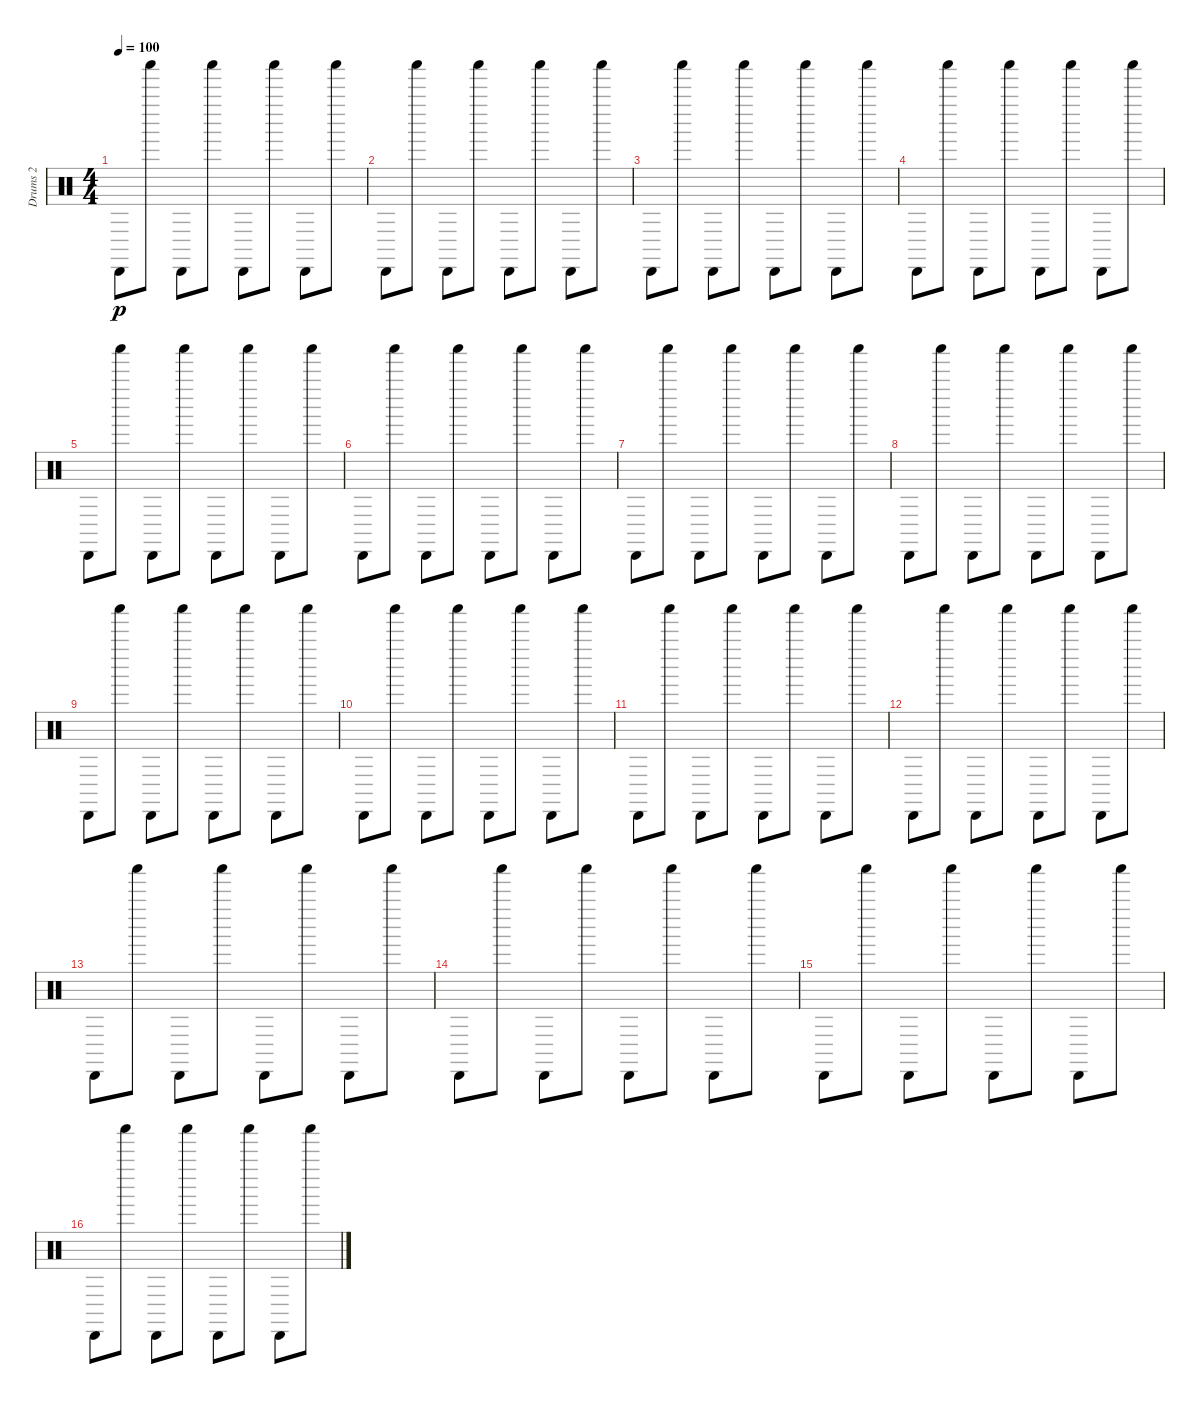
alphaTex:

\track ("Drums 2" "Drums 2") {instrument percussion}
\staff {score}
\articulation defaults
\ts (4 4)
\section ("" "")
\tempo 100
\clef neutral
\ks c "Cabasa (hit)".8{dy p} "Shaker (hit)".8 "Cabasa (hit)".8 "Shaker (hit)".8 "Cabasa (hit)".8 "Shaker (hit)".8 "Cabasa (hit)".8 "Shaker (hit)".8
|
"Cabasa (hit)".8 "Shaker (hit)".8 "Cabasa (hit)".8 "Shaker (hit)".8 "Cabasa (hit)".8 "Shaker (hit)".8 "Cabasa (hit)".8 "Shaker (hit)".8 |
"Cabasa (hit)".8 "Shaker (hit)".8 "Cabasa (hit)".8 "Shaker (hit)".8 "Cabasa (hit)".8 "Shaker (hit)".8 "Cabasa (hit)".8 "Shaker (hit)".8 |
"Cabasa (hit)".8 "Shaker (hit)".8 "Cabasa (hit)".8 "Shaker (hit)".8 "Cabasa (hit)".8 "Shaker (hit)".8 "Cabasa (hit)".8 "Shaker (hit)".8 |
"Cabasa (hit)".8 "Shaker (hit)".8 "Cabasa (hit)".8 "Shaker (hit)".8 "Cabasa (hit)".8 "Shaker (hit)".8 "Cabasa (hit)".8 "Shaker (hit)".8 |
"Cabasa (hit)".8 "Shaker (hit)".8 "Cabasa (hit)".8 "Shaker (hit)".8 "Cabasa (hit)".8 "Shaker (hit)".8 "Cabasa (hit)".8 "Shaker (hit)".8 |
"Cabasa (hit)".8 "Shaker (hit)".8 "Cabasa (hit)".8 "Shaker (hit)".8 "Cabasa (hit)".8 "Shaker (hit)".8 "Cabasa (hit)".8 "Shaker (hit)".8 |
"Cabasa (hit)".8 "Shaker (hit)".8 "Cabasa (hit)".8 "Shaker (hit)".8 "Cabasa (hit)".8 "Shaker (hit)".8 "Cabasa (hit)".8 "Shaker (hit)".8 |
"Cabasa (hit)".8 "Shaker (hit)".8 "Cabasa (hit)".8 "Shaker (hit)".8 "Cabasa (hit)".8 "Shaker (hit)".8 "Cabasa (hit)".8 "Shaker (hit)".8 |
"Cabasa (hit)".8 "Shaker (hit)".8 "Cabasa (hit)".8 "Shaker (hit)".8 "Cabasa (hit)".8 "Shaker (hit)".8 "Cabasa (hit)".8 "Shaker (hit)".8 |
"Cabasa (hit)".8 "Shaker (hit)".8 "Cabasa (hit)".8 "Shaker (hit)".8 "Cabasa (hit)".8 "Shaker (hit)".8 "Cabasa (hit)".8 "Shaker (hit)".8 |
"Cabasa (hit)".8 "Shaker (hit)".8 "Cabasa (hit)".8 "Shaker (hit)".8 "Cabasa (hit)".8 "Shaker (hit)".8 "Cabasa (hit)".8 "Shaker (hit)".8 |
"Cabasa (hit)".8 "Shaker (hit)".8 "Cabasa (hit)".8 "Shaker (hit)".8 "Cabasa (hit)".8 "Shaker (hit)".8 "Cabasa (hit)".8 "Shaker (hit)".8 |
"Cabasa (hit)".8 "Shaker (hit)".8 "Cabasa (hit)".8 "Shaker (hit)".8 "Cabasa (hit)".8 "Shaker (hit)".8 "Cabasa (hit)".8 "Shaker (hit)".8 |
"Cabasa (hit)".8 "Shaker (hit)".8 "Cabasa (hit)".8 "Shaker (hit)".8 "Cabasa (hit)".8 "Shaker (hit)".8 "Cabasa (hit)".8 "Shaker (hit)".8 |
"Cabasa (hit)".8 "Shaker (hit)".8 "Cabasa (hit)".8 "Shaker (hit)".8 "Cabasa (hit)".8 "Shaker (hit)".8 "Cabasa (hit)".8 "Shaker (hit)".8
